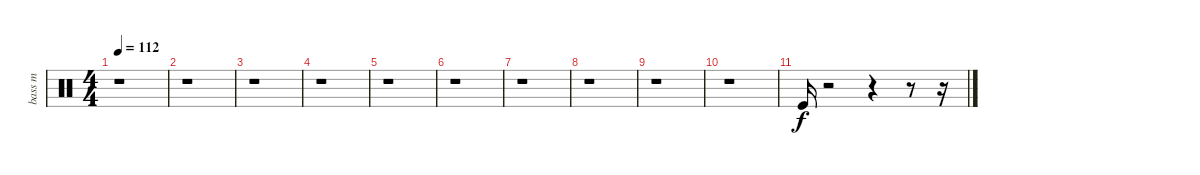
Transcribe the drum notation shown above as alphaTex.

\track ("bass m" "bass m") {instrument percussion}
\staff {score}
\articulation defaults
\ts (4 4)
\tempo 112
\clef neutral
\ks c
r.1{dy ff} |
r.1 |
r.1 |
r.1 |
r.1 |
r.1 |
r.1 |
r.1 |
r.1 |
r.1 |
"Kick (hit)".16{dy f} r.2 r.4 r.8 r.16
